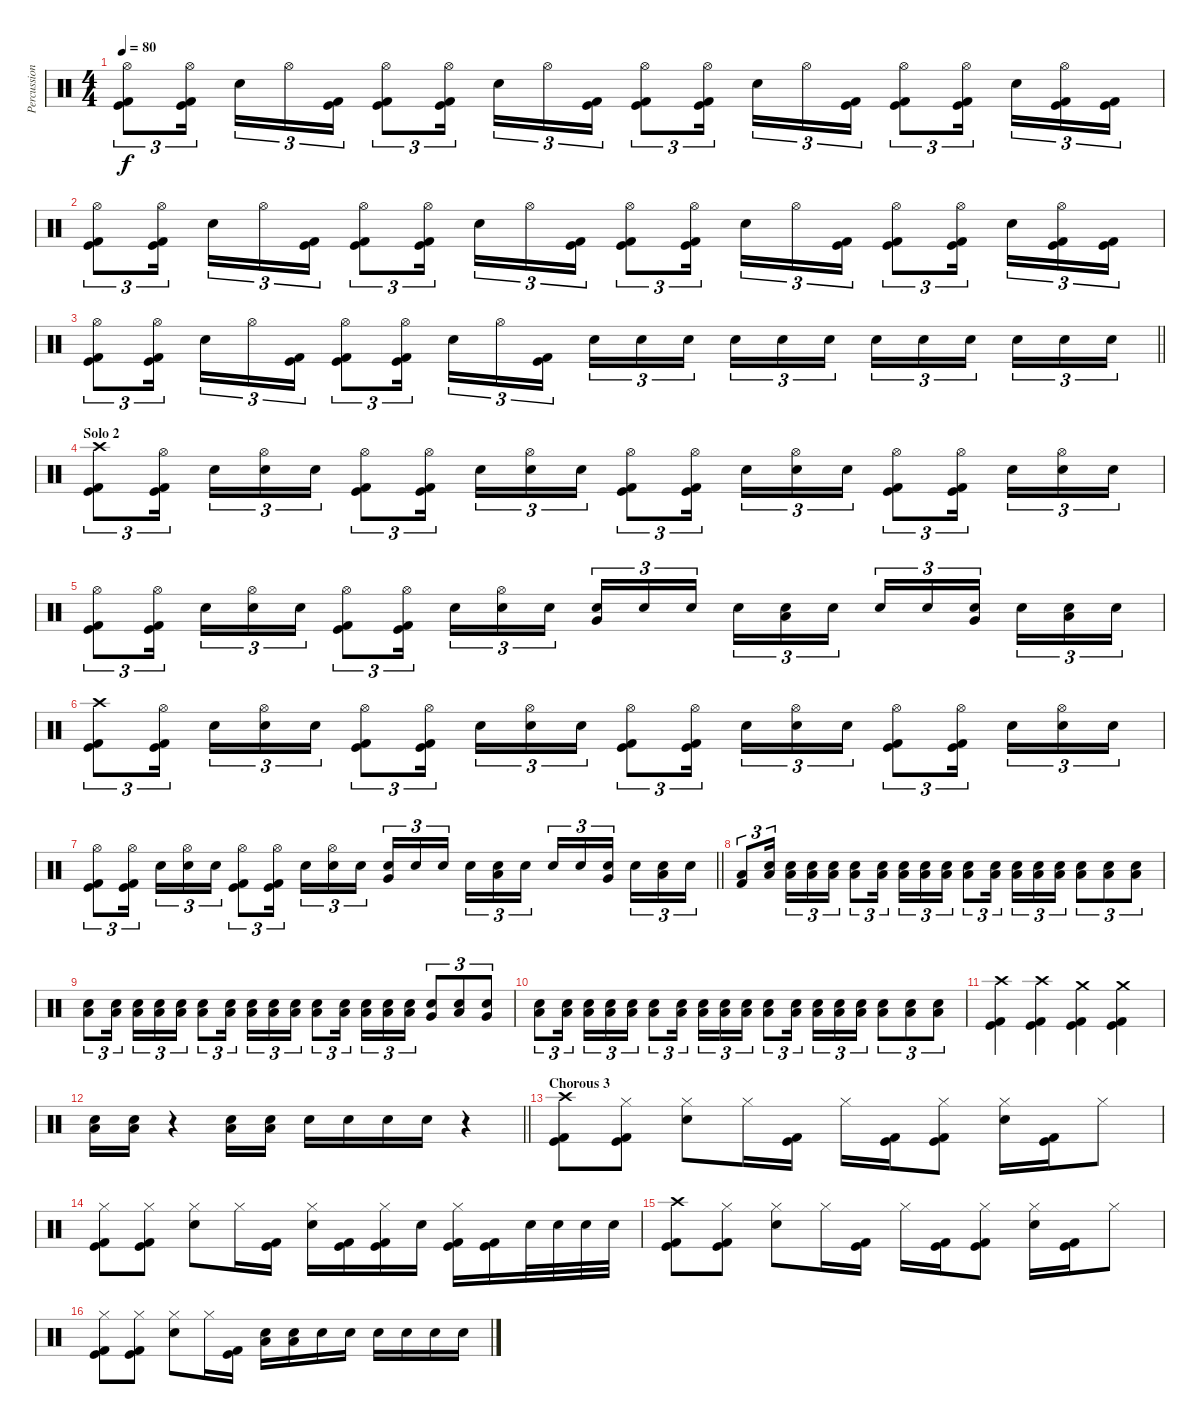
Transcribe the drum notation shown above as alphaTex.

\track ("Percussion" "Percussion") {instrument percussion}
\staff {score}
\articulation defaults
\ts (4 4)
\tempo 80
\clef neutral
\ks c
("Hi-Hat (open)" "Kick (hit)" "Kick (hit) 2").8{tu (3 2) dy f} ("Hi-Hat (open)" "Kick (hit)" "Kick (hit) 2").16{tu (3 2) beam splitsecondary} "Electric Snare (hit)".16{tu (3 2)} "Hi-Hat (open)".16{tu (3 2)} ("Kick (hit)" "Kick (hit) 2").16{tu (3 2)} ("Hi-Hat (open)" "Kick (hit)" "Kick (hit) 2").8{tu (3 2)} ("Hi-Hat (open)" "Kick (hit)" "Kick (hit) 2").16{tu (3 2) beam splitsecondary} "Electric Snare (hit)".16{tu (3 2)} "Hi-Hat (open)".16{tu (3 2)} ("Kick (hit)" "Kick (hit) 2").16{tu (3 2)} ("Hi-Hat (open)" "Kick (hit)" "Kick (hit) 2").8{tu (3 2)} ("Hi-Hat (open)" "Kick (hit)" "Kick (hit) 2").16{tu (3 2) beam splitsecondary} "Electric Snare (hit)".16{tu (3 2)} "Hi-Hat (open)".16{tu (3 2)} ("Kick (hit)" "Kick (hit) 2").16{tu (3 2)} ("Hi-Hat (open)" "Kick (hit)" "Kick (hit) 2").8{tu (3 2)} ("Hi-Hat (open)" "Kick (hit)" "Kick (hit) 2").16{tu (3 2) beam splitsecondary} "Electric Snare (hit)".16{tu (3 2)} ("Hi-Hat (open)" "Kick (hit)" "Kick (hit) 2").16{tu (3 2)} ("Kick (hit)" "Kick (hit) 2").16{tu (3 2)} |
("Hi-Hat (open)" "Kick (hit)" "Kick (hit) 2").8{tu (3 2)} ("Hi-Hat (open)" "Kick (hit)" "Kick (hit) 2").16{tu (3 2) beam splitsecondary} "Electric Snare (hit)".16{tu (3 2)} "Hi-Hat (open)".16{tu (3 2)} ("Kick (hit)" "Kick (hit) 2").16{tu (3 2)} ("Hi-Hat (open)" "Kick (hit)" "Kick (hit) 2").8{tu (3 2)} ("Hi-Hat (open)" "Kick (hit)" "Kick (hit) 2").16{tu (3 2) beam splitsecondary} "Electric Snare (hit)".16{tu (3 2)} "Hi-Hat (open)".16{tu (3 2)} ("Kick (hit)" "Kick (hit) 2").16{tu (3 2)} ("Hi-Hat (open)" "Kick (hit)" "Kick (hit) 2").8{tu (3 2)} ("Hi-Hat (open)" "Kick (hit)" "Kick (hit) 2").16{tu (3 2) beam splitsecondary} "Electric Snare (hit)".16{tu (3 2)} "Hi-Hat (open)".16{tu (3 2)} ("Kick (hit)" "Kick (hit) 2").16{tu (3 2)} ("Hi-Hat (open)" "Kick (hit)" "Kick (hit) 2").8{tu (3 2)} ("Hi-Hat (open)" "Kick (hit)" "Kick (hit) 2").16{tu (3 2) beam splitsecondary} "Electric Snare (hit)".16{tu (3 2)} ("Hi-Hat (open)" "Kick (hit)" "Kick (hit) 2").16{tu (3 2)} ("Kick (hit)" "Kick (hit) 2").16{tu (3 2)} |
\barLineRight lightlight
("Hi-Hat (open)" "Kick (hit)" "Kick (hit) 2").8{tu (3 2)} ("Hi-Hat (open)" "Kick (hit)" "Kick (hit) 2").16{tu (3 2) beam splitsecondary} "Electric Snare (hit)".16{tu (3 2)} "Hi-Hat (open)".16{tu (3 2)} ("Kick (hit)" "Kick (hit) 2").16{tu (3 2)} ("Hi-Hat (open)" "Kick (hit)" "Kick (hit) 2").8{tu (3 2)} ("Hi-Hat (open)" "Kick (hit)" "Kick (hit) 2").16{tu (3 2) beam splitsecondary} "Electric Snare (hit)".16{tu (3 2)} "Hi-Hat (open)".16{tu (3 2)} ("Kick (hit)" "Kick (hit) 2").16{tu (3 2)} "Electric Snare (hit)".16{tu (3 2)} "Electric Snare (hit)".16{tu (3 2)} "Electric Snare (hit)".16{tu (3 2) beam splitsecondary} "Electric Snare (hit)".16{tu (3 2)} "Electric Snare (hit)".16{tu (3 2)} "Electric Snare (hit)".16{tu (3 2)} "Electric Snare (hit)".16{tu (3 2)} "Electric Snare (hit)".16{tu (3 2)} "Electric Snare (hit)".16{tu (3 2) beam splitsecondary} "Electric Snare (hit)".16{tu (3 2)} "Electric Snare (hit)".16{tu (3 2)} "Electric Snare (hit)".16{tu (3 2)} |
\section ("" "Solo 2")
("Crash high (hit)" "Kick (hit)" "Kick (hit) 2").8{tu (3 2)} ("Hi-Hat (open)" "Kick (hit)" "Kick (hit) 2").16{tu (3 2) beam splitsecondary} "Electric Snare (hit)".16{tu (3 2)} ("Hi-Hat (open)" "Electric Snare (hit)").16{tu (3 2)} "Electric Snare (hit)".16{tu (3 2)} ("Hi-Hat (open)" "Kick (hit)" "Kick (hit) 2").8{tu (3 2)} ("Hi-Hat (open)" "Kick (hit)" "Kick (hit) 2").16{tu (3 2) beam splitsecondary} "Electric Snare (hit)".16{tu (3 2)} ("Hi-Hat (open)" "Electric Snare (hit)").16{tu (3 2)} "Electric Snare (hit)".16{tu (3 2)} ("Hi-Hat (open)" "Kick (hit)" "Kick (hit) 2").8{tu (3 2)} ("Hi-Hat (open)" "Kick (hit)" "Kick (hit) 2").16{tu (3 2) beam splitsecondary} "Electric Snare (hit)".16{tu (3 2)} ("Hi-Hat (open)" "Electric Snare (hit)").16{tu (3 2)} "Electric Snare (hit)".16{tu (3 2)} ("Hi-Hat (open)" "Kick (hit)" "Kick (hit) 2").8{tu (3 2)} ("Hi-Hat (open)" "Kick (hit)" "Kick (hit) 2").16{tu (3 2) beam splitsecondary} "Electric Snare (hit)".16{tu (3 2)} ("Hi-Hat (open)" "Electric Snare (hit)").16{tu (3 2)} "Electric Snare (hit)".16{tu (3 2)} |
("Hi-Hat (open)" "Kick (hit)" "Kick (hit) 2").8{tu (3 2)} ("Hi-Hat (open)" "Kick (hit)" "Kick (hit) 2").16{tu (3 2) beam splitsecondary} "Electric Snare (hit)".16{tu (3 2)} ("Hi-Hat (open)" "Electric Snare (hit)").16{tu (3 2)} "Electric Snare (hit)".16{tu (3 2)} ("Hi-Hat (open)" "Kick (hit)" "Kick (hit) 2").8{tu (3 2)} ("Hi-Hat (open)" "Kick (hit)" "Kick (hit) 2").16{tu (3 2) beam splitsecondary} "Electric Snare (hit)".16{tu (3 2)} ("Hi-Hat (open)" "Electric Snare (hit)").16{tu (3 2)} "Electric Snare (hit)".16{tu (3 2)} ("Very Low Tom (hit)" "Electric Snare (hit)").16{tu (3 2)} "Electric Snare (hit)".16{tu (3 2)} "Electric Snare (hit)".16{tu (3 2) beam splitsecondary} "Electric Snare (hit)".16{tu (3 2)} ("Low Tom (hit)" "Electric Snare (hit)").16{tu (3 2)} "Electric Snare (hit)".16{tu (3 2)} "Electric Snare (hit)".16{tu (3 2)} "Electric Snare (hit)".16{tu (3 2)} ("Very Low Tom (hit)" "Electric Snare (hit)").16{tu (3 2) beam splitsecondary} "Electric Snare (hit)".16{tu (3 2)} ("Low Tom (hit)" "Electric Snare (hit)").16{tu (3 2)} "Electric Snare (hit)".16{tu (3 2)} |
("Crash high (hit)" "Kick (hit)" "Kick (hit) 2").8{tu (3 2)} ("Hi-Hat (open)" "Kick (hit)" "Kick (hit) 2").16{tu (3 2) beam splitsecondary} "Electric Snare (hit)".16{tu (3 2)} ("Hi-Hat (open)" "Electric Snare (hit)").16{tu (3 2)} "Electric Snare (hit)".16{tu (3 2)} ("Hi-Hat (open)" "Kick (hit)" "Kick (hit) 2").8{tu (3 2)} ("Hi-Hat (open)" "Kick (hit)" "Kick (hit) 2").16{tu (3 2) beam splitsecondary} "Electric Snare (hit)".16{tu (3 2)} ("Hi-Hat (open)" "Electric Snare (hit)").16{tu (3 2)} "Electric Snare (hit)".16{tu (3 2)} ("Hi-Hat (open)" "Kick (hit)" "Kick (hit) 2").8{tu (3 2)} ("Hi-Hat (open)" "Kick (hit)" "Kick (hit) 2").16{tu (3 2) beam splitsecondary} "Electric Snare (hit)".16{tu (3 2)} ("Hi-Hat (open)" "Electric Snare (hit)").16{tu (3 2)} "Electric Snare (hit)".16{tu (3 2)} ("Hi-Hat (open)" "Kick (hit)" "Kick (hit) 2").8{tu (3 2)} ("Hi-Hat (open)" "Kick (hit)" "Kick (hit) 2").16{tu (3 2) beam splitsecondary} "Electric Snare (hit)".16{tu (3 2)} ("Hi-Hat (open)" "Electric Snare (hit)").16{tu (3 2)} "Electric Snare (hit)".16{tu (3 2)} |
\barLineRight lightlight
("Hi-Hat (open)" "Kick (hit)" "Kick (hit) 2").8{tu (3 2)} ("Hi-Hat (open)" "Kick (hit)" "Kick (hit) 2").16{tu (3 2) beam splitsecondary} "Electric Snare (hit)".16{tu (3 2)} ("Hi-Hat (open)" "Electric Snare (hit)").16{tu (3 2)} "Electric Snare (hit)".16{tu (3 2)} ("Hi-Hat (open)" "Kick (hit)" "Kick (hit) 2").8{tu (3 2)} ("Hi-Hat (open)" "Kick (hit)" "Kick (hit) 2").16{tu (3 2) beam splitsecondary} "Electric Snare (hit)".16{tu (3 2)} ("Hi-Hat (open)" "Electric Snare (hit)").16{tu (3 2)} "Electric Snare (hit)".16{tu (3 2)} ("Very Low Tom (hit)" "Electric Snare (hit)").16{tu (3 2)} "Electric Snare (hit)".16{tu (3 2)} "Electric Snare (hit)".16{tu (3 2) beam splitsecondary} "Electric Snare (hit)".16{tu (3 2)} ("Low Tom (hit)" "Electric Snare (hit)").16{tu (3 2)} "Electric Snare (hit)".16{tu (3 2)} "Electric Snare (hit)".16{tu (3 2)} "Electric Snare (hit)".16{tu (3 2)} ("Very Low Tom (hit)" "Electric Snare (hit)").16{tu (3 2) beam splitsecondary} "Electric Snare (hit)".16{tu (3 2)} ("Low Tom (hit)" "Electric Snare (hit)").16{tu (3 2)} "Electric Snare (hit)".16{tu (3 2)} |
\section ("" "")
("Low Floor Tom (hit)" "Kick (hit) 2").8{tu (3 2)} ("Electric Snare (hit)" "Low Floor Tom (hit)").16{tu (3 2) beam splitsecondary} ("Electric Snare (hit)" "Low Floor Tom (hit)").16{tu (3 2)} ("Electric Snare (hit)" "Low Floor Tom (hit)").16{tu (3 2)} ("Electric Snare (hit)" "Low Floor Tom (hit)").16{tu (3 2)} ("Electric Snare (hit)" "Low Floor Tom (hit)").8{tu (3 2)} ("Electric Snare (hit)" "Low Floor Tom (hit)").16{tu (3 2) beam splitsecondary} ("Electric Snare (hit)" "Low Floor Tom (hit)").16{tu (3 2)} ("Electric Snare (hit)" "Low Floor Tom (hit)").16{tu (3 2)} ("Electric Snare (hit)" "Low Floor Tom (hit)").16{tu (3 2)} ("Electric Snare (hit)" "Low Floor Tom (hit)").8{tu (3 2)} ("Electric Snare (hit)" "Low Floor Tom (hit)").16{tu (3 2) beam splitsecondary} ("Electric Snare (hit)" "Low Floor Tom (hit)").16{tu (3 2)} ("Electric Snare (hit)" "Low Floor Tom (hit)").16{tu (3 2)} ("Electric Snare (hit)" "Low Floor Tom (hit)").16{tu (3 2)} ("Low Tom (hit)" "Electric Snare (hit)").8{tu (3 2)} ("Electric Snare (hit)" "Low Floor Tom (hit)").8{tu (3 2)} ("Low Tom (hit)" "Electric Snare (hit)").8{tu (3 2)} |
("Low Tom (hit)" "Electric Snare (hit)").8{tu (3 2)} ("Electric Snare (hit)" "Low Floor Tom (hit)").16{tu (3 2) beam splitsecondary} ("Electric Snare (hit)" "Low Floor Tom (hit)").16{tu (3 2)} ("Electric Snare (hit)" "Low Floor Tom (hit)").16{tu (3 2)} ("Electric Snare (hit)" "Low Floor Tom (hit)").16{tu (3 2)} ("Electric Snare (hit)" "Low Floor Tom (hit)").8{tu (3 2)} ("Electric Snare (hit)" "Low Floor Tom (hit)").16{tu (3 2) beam splitsecondary} ("Electric Snare (hit)" "Low Floor Tom (hit)").16{tu (3 2)} ("Electric Snare (hit)" "Low Floor Tom (hit)").16{tu (3 2)} ("Electric Snare (hit)" "Low Floor Tom (hit)").16{tu (3 2)} ("Electric Snare (hit)" "Low Floor Tom (hit)").8{tu (3 2)} ("Electric Snare (hit)" "Low Floor Tom (hit)").16{tu (3 2) beam splitsecondary} ("Electric Snare (hit)" "Low Floor Tom (hit)").16{tu (3 2)} ("Electric Snare (hit)" "Low Floor Tom (hit)").16{tu (3 2)} ("Electric Snare (hit)" "Low Floor Tom (hit)").16{tu (3 2)} ("Very Low Tom (hit)" "Electric Snare (hit)").8{tu (3 2)} ("Low Tom (hit)" "Electric Snare (hit)").8{tu (3 2)} ("Very Low Tom (hit)" "Electric Snare (hit)").8{tu (3 2)} |
("Low Tom (hit)" "Electric Snare (hit)").8{tu (3 2)} ("Electric Snare (hit)" "Low Floor Tom (hit)").16{tu (3 2) beam splitsecondary} ("Electric Snare (hit)" "Low Floor Tom (hit)").16{tu (3 2)} ("Electric Snare (hit)" "Low Floor Tom (hit)").16{tu (3 2)} ("Electric Snare (hit)" "Low Floor Tom (hit)").16{tu (3 2)} ("Electric Snare (hit)" "Low Floor Tom (hit)").8{tu (3 2)} ("Electric Snare (hit)" "Low Floor Tom (hit)").16{tu (3 2) beam splitsecondary} ("Electric Snare (hit)" "Low Floor Tom (hit)").16{tu (3 2)} ("Electric Snare (hit)" "Low Floor Tom (hit)").16{tu (3 2)} ("Electric Snare (hit)" "Low Floor Tom (hit)").16{tu (3 2)} ("Electric Snare (hit)" "Low Floor Tom (hit)").8{tu (3 2)} ("Electric Snare (hit)" "Low Floor Tom (hit)").16{tu (3 2) beam splitsecondary} ("Electric Snare (hit)" "Low Floor Tom (hit)").16{tu (3 2)} ("Electric Snare (hit)" "Low Floor Tom (hit)").16{tu (3 2)} ("Electric Snare (hit)" "Low Floor Tom (hit)").16{tu (3 2)} ("Low Tom (hit)" "Electric Snare (hit)").8{tu (3 2)} ("Electric Snare (hit)" "Low Floor Tom (hit)").8{tu (3 2)} ("Low Tom (hit)" "Electric Snare (hit)").8{tu (3 2)} |
("Crash high (hit)" "Kick (hit)" "Kick (hit) 2").4 ("Crash high (hit)" "Kick (hit)" "Kick (hit) 2").4 ("Crash medium (hit)" "Kick (hit)" "Kick (hit) 2").4 ("Crash medium (hit)" "Kick (hit)" "Kick (hit) 2").4 |
\barLineRight lightlight
("Electric Snare (hit)" "Low Floor Tom (hit)").16 ("Electric Snare (hit)" "Low Floor Tom (hit)").16 r.4 ("Electric Snare (hit)" "Low Floor Tom (hit)").16 ("Electric Snare (hit)" "Low Floor Tom (hit)").16 "Electric Snare (hit)".16 "Electric Snare (hit)".16 "Electric Snare (hit)".16 "Electric Snare (hit)".16 r.4 |
\section ("" "Chorous 3")
("Crash high (hit)" "Kick (hit)" "Kick (hit) 2").8 ("Hi-Hat (closed)" "Kick (hit)" "Kick (hit) 2").8 ("Hi-Hat (closed)" "Electric Snare (hit)").8 "Hi-Hat (closed)".16 ("Kick (hit)" "Kick (hit) 2").16 "Hi-Hat (closed)".16 ("Kick (hit)" "Kick (hit) 2").16 ("Hi-Hat (closed)" "Kick (hit)" "Kick (hit) 2").8 ("Hi-Hat (closed)" "Electric Snare (hit)").16 ("Kick (hit)" "Kick (hit) 2").16 "Hi-Hat (closed)".8 |
("Hi-Hat (closed)" "Kick (hit)" "Kick (hit) 2").8 ("Hi-Hat (closed)" "Kick (hit)" "Kick (hit) 2").8 ("Hi-Hat (closed)" "Electric Snare (hit)").8 "Hi-Hat (closed)".16 ("Kick (hit)" "Kick (hit) 2").16 ("Hi-Hat (closed)" "Electric Snare (hit)").16 ("Kick (hit)" "Kick (hit) 2").16 ("Hi-Hat (closed)" "Kick (hit)" "Kick (hit) 2").16 "Electric Snare (hit)".16 ("Hi-Hat (closed)" "Kick (hit)" "Kick (hit) 2").16 ("Kick (hit)" "Kick (hit) 2").16 "Electric Snare (hit)".32 "Electric Snare (hit)".32 "Electric Snare (hit)".32 "Electric Snare (hit)".32 |
("Crash high (hit)" "Kick (hit)" "Kick (hit) 2").8 ("Hi-Hat (closed)" "Kick (hit)" "Kick (hit) 2").8 ("Hi-Hat (closed)" "Electric Snare (hit)").8 "Hi-Hat (closed)".16 ("Kick (hit)" "Kick (hit) 2").16 "Hi-Hat (closed)".16 ("Kick (hit)" "Kick (hit) 2").16 ("Hi-Hat (closed)" "Kick (hit)" "Kick (hit) 2").8 ("Hi-Hat (closed)" "Electric Snare (hit)").16 ("Kick (hit)" "Kick (hit) 2").16 "Hi-Hat (closed)".8 |
("Hi-Hat (closed)" "Kick (hit)" "Kick (hit) 2").8 ("Hi-Hat (closed)" "Kick (hit)" "Kick (hit) 2").8 ("Hi-Hat (closed)" "Electric Snare (hit)").8 "Hi-Hat (closed)".16 ("Kick (hit)" "Kick (hit) 2").16 ("Electric Snare (hit)" "Low Floor Tom (hit)").16 ("Electric Snare (hit)" "Low Floor Tom (hit)").16 "Electric Snare (hit)".16 "Electric Snare (hit)".16 "Electric Snare (hit)".16 "Electric Snare (hit)".16 "Electric Snare (hit)".16 "Electric Snare (hit)".16
